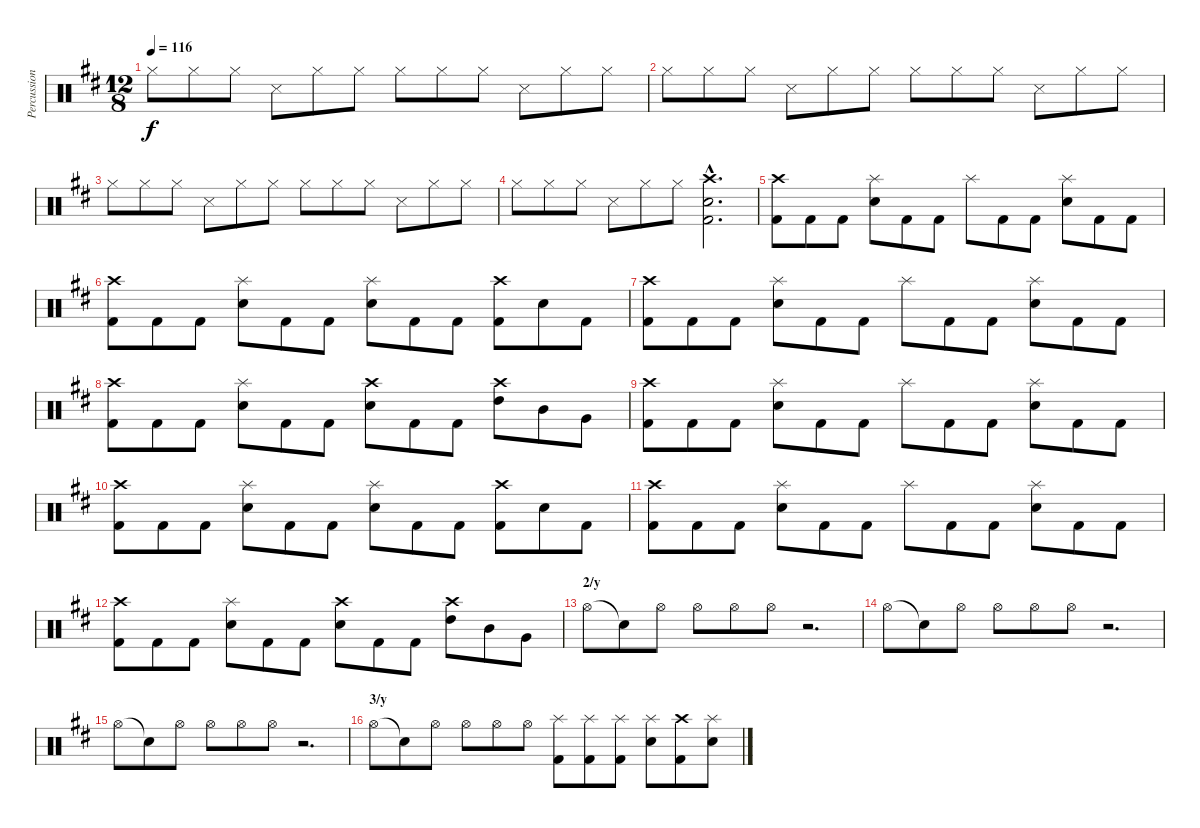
\track ("Percussion" "Percussion") {instrument percussion}
\staff {score}
\articulation defaults
\ts (12 8)
\tempo 116
\clef neutral
\ks bminor "Hi-Hat (closed)".8{dy f} "Hi-Hat (closed)".8 "Hi-Hat (closed)".8 "Snare (side stick) 3".8 "Hi-Hat (closed)".8 "Hi-Hat (closed)".8 "Hi-Hat (closed)".8 "Hi-Hat (closed)".8 "Hi-Hat (closed)".8 "Snare (side stick) 3".8 "Hi-Hat (closed)".8 "Hi-Hat (closed)".8
|
"Hi-Hat (closed)".8 "Hi-Hat (closed)".8 "Hi-Hat (closed)".8 "Snare (side stick) 3".8 "Hi-Hat (closed)".8 "Hi-Hat (closed)".8 "Hi-Hat (closed)".8 "Hi-Hat (closed)".8 "Hi-Hat (closed)".8 "Snare (side stick) 3".8 "Hi-Hat (closed)".8 "Hi-Hat (closed)".8 |
"Hi-Hat (closed)".8 "Hi-Hat (closed)".8 "Hi-Hat (closed)".8 "Snare (side stick) 3".8 "Hi-Hat (closed)".8 "Hi-Hat (closed)".8 "Hi-Hat (closed)".8 "Hi-Hat (closed)".8 "Hi-Hat (closed)".8 "Snare (side stick) 3".8 "Hi-Hat (closed)".8 "Hi-Hat (closed)".8 |
"Hi-Hat (closed)".8 "Hi-Hat (closed)".8 "Hi-Hat (closed)".8 "Snare (side stick) 3".8 "Hi-Hat (closed)".8 "Hi-Hat (closed)".8 ("Crash high (hit)"{hac} "Snare (hit) 2"{hac} "Kick (hit) 2"{hac}).2{d} |
("Crash high (hit)" "Kick (hit) 2").8 "Kick (hit) 2".8 "Kick (hit) 2".8 ("Splash (hit)" "Snare (hit) 2").8 "Kick (hit) 2".8 "Kick (hit) 2".8 "Splash (hit)".8 "Kick (hit) 2".8 "Kick (hit) 2".8 ("Splash (hit)" "Snare (hit) 2").8 "Kick (hit) 2".8 "Kick (hit) 2".8 |
("Crash high (hit)" "Kick (hit) 2").8 "Kick (hit) 2".8 "Kick (hit) 2".8 ("Splash (hit)" "Snare (hit) 2").8 "Kick (hit) 2".8 "Kick (hit) 2".8 ("Splash (hit)" "Snare (hit) 2").8 "Kick (hit) 2".8 "Kick (hit) 2".8 ("Crash high (hit)" "Kick (hit) 2").8 "Snare (hit) 2".8 "Kick (hit) 2".8 |
("Crash high (hit)" "Kick (hit) 2").8 "Kick (hit) 2".8 "Kick (hit) 2".8 ("Splash (hit)" "Snare (hit) 2").8 "Kick (hit) 2".8 "Kick (hit) 2".8 "Splash (hit)".8 "Kick (hit) 2".8 "Kick (hit) 2".8 ("Splash (hit)" "Snare (hit) 2").8 "Kick (hit) 2".8 "Kick (hit) 2".8 |
("Crash high (hit)" "Kick (hit) 2").8 "Kick (hit) 2".8 "Kick (hit) 2".8 ("Splash (hit)" "Snare (hit) 2").8 "Kick (hit) 2".8 "Kick (hit) 2".8 ("Crash high (hit)" "Snare (hit) 2").8 "Kick (hit) 2".8 "Kick (hit) 2".8 ("Crash high (hit)" "High Tom (hit)").8 "Mid Tom (hit)".8 "Very Low Tom (hit)".8 |
("Crash high (hit)" "Kick (hit) 2").8 "Kick (hit) 2".8 "Kick (hit) 2".8 ("Splash (hit)" "Snare (hit) 2").8 "Kick (hit) 2".8 "Kick (hit) 2".8 "Splash (hit)".8 "Kick (hit) 2".8 "Kick (hit) 2".8 ("Splash (hit)" "Snare (hit) 2").8 "Kick (hit) 2".8 "Kick (hit) 2".8 |
("Crash high (hit)" "Kick (hit) 2").8 "Kick (hit) 2".8 "Kick (hit) 2".8 ("Splash (hit)" "Snare (hit) 2").8 "Kick (hit) 2".8 "Kick (hit) 2".8 ("Splash (hit)" "Snare (hit) 2").8 "Kick (hit) 2".8 "Kick (hit) 2".8 ("Crash high (hit)" "Kick (hit) 2").8 "Snare (hit) 2".8 "Kick (hit) 2".8 |
("Crash high (hit)" "Kick (hit) 2").8 "Kick (hit) 2".8 "Kick (hit) 2".8 ("Splash (hit)" "Snare (hit) 2").8 "Kick (hit) 2".8 "Kick (hit) 2".8 "Splash (hit)".8 "Kick (hit) 2".8 "Kick (hit) 2".8 ("Splash (hit)" "Snare (hit) 2").8 "Kick (hit) 2".8 "Kick (hit) 2".8 |
("Crash high (hit)" "Kick (hit) 2").8 "Kick (hit) 2".8 "Kick (hit) 2".8 ("Splash (hit)" "Snare (hit) 2").8 "Kick (hit) 2".8 "Kick (hit) 2".8 ("Crash high (hit)" "Snare (hit) 2").8 "Kick (hit) 2".8 "Kick (hit) 2".8 ("Crash high (hit)" "High Tom (hit)").8 "Mid Tom (hit)".8 "Very Low Tom (hit)".8 |
\section ("" "2/y")
"Hi-Hat (open)".8 "Snare (hit)"{t}.8 "Hi-Hat (open)".8 "Hi-Hat (open)".8 "Hi-Hat (open)".8 "Hi-Hat (open)".8 r.2{d} |
"Hi-Hat (open)".8 "Snare (hit)"{t}.8 "Hi-Hat (open)".8 "Hi-Hat (open)".8 "Hi-Hat (open)".8 "Hi-Hat (open)".8 r.2{d} |
"Hi-Hat (open)".8 "Snare (hit)"{t}.8 "Hi-Hat (open)".8 "Hi-Hat (open)".8 "Hi-Hat (open)".8 "Hi-Hat (open)".8 r.2{d} |
\section ("" "3/y")
"Hi-Hat (open)".8 "Snare (hit)"{t}.8 "Hi-Hat (open)".8 "Hi-Hat (open)".8 "Hi-Hat (open)".8 "Hi-Hat (open)".8 ("Splash (hit)" "Kick (hit) 2").8 ("Splash (hit)" "Kick (hit) 2").8 ("Splash (hit)" "Kick (hit) 2").8 ("Splash (hit)" "Snare (hit) 2").8 ("Crash high (hit)" "Kick (hit) 2").8 ("Splash (hit)" "Snare (hit) 2").8
